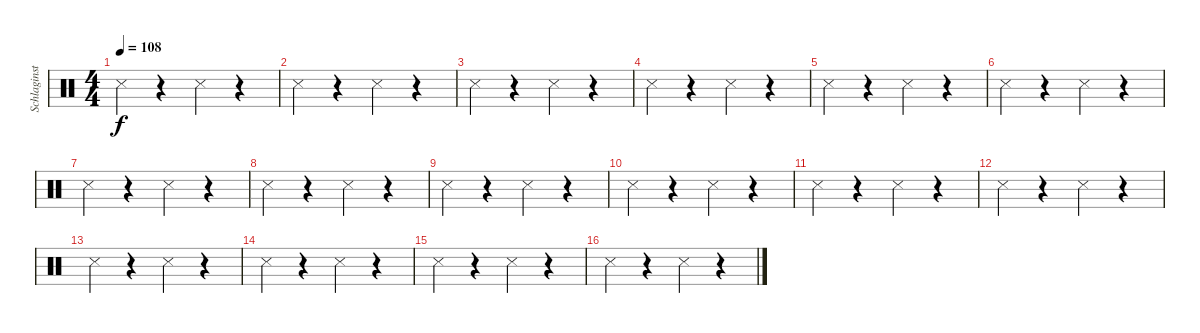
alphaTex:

\track ("Schlaginstrumente - Auswahl" "Schlaginst") {instrument percussion}
\staff {score}
\articulation defaults
\ts (4 4)
\tempo 108
\clef neutral
\ks c "Snare (side stick) 3".4{dy f}
r.4 "Snare (side stick) 3".4 r.4 |
"Snare (side stick) 3".4 r.4 "Snare (side stick) 3".4 r.4 |
"Snare (side stick) 3".4 r.4 "Snare (side stick) 3".4 r.4 |
"Snare (side stick) 3".4 r.4 "Snare (side stick) 3".4 r.4 |
"Snare (side stick) 3".4 r.4 "Snare (side stick) 3".4 r.4 |
"Snare (side stick) 3".4 r.4 "Snare (side stick) 3".4 r.4 |
"Snare (side stick) 3".4 r.4 "Snare (side stick) 3".4 r.4 |
"Snare (side stick) 3".4 r.4 "Snare (side stick) 3".4 r.4 |
"Snare (side stick) 3".4 r.4 "Snare (side stick) 3".4 r.4 |
"Snare (side stick) 3".4 r.4 "Snare (side stick) 3".4 r.4 |
"Snare (side stick) 3".4 r.4 "Snare (side stick) 3".4 r.4 |
"Snare (side stick) 3".4 r.4 "Snare (side stick) 3".4 r.4 |
"Snare (side stick) 3".4 r.4 "Snare (side stick) 3".4 r.4 |
"Snare (side stick) 3".4 r.4 "Snare (side stick) 3".4 r.4 |
"Snare (side stick) 3".4 r.4 "Snare (side stick) 3".4 r.4 |
"Snare (side stick) 3".4 r.4 "Snare (side stick) 3".4 r.4
